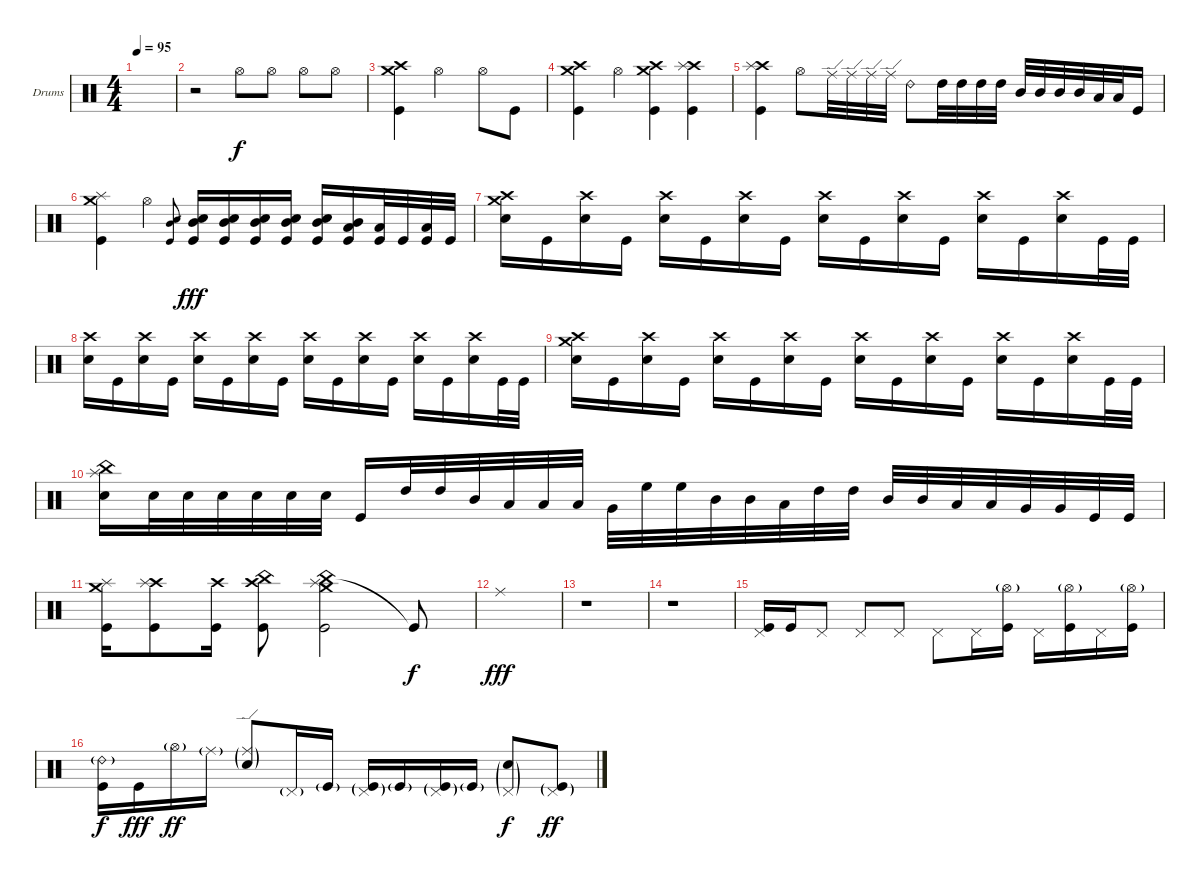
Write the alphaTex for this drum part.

\defaultSystemsLayout 4
\bracketExtendMode groupsimilarinstruments
\firstSystemTrackNameOrientation horizontal
\otherSystemsTrackNameOrientation horizontal
\track ("Drumkit" "Drums") {instrument percussion}
\staff {score}
\articulation defaults
\ts (4 4)
\tempo 95
\clef neutral
\scale
0.472222
\ks c
|
r.2 "Hi-Hat (open)".8 "Hi-Hat (open)".8 "Hi-Hat (open)".8 "Hi-Hat (open)".8 |
("Crash high (hit)" "Crash medium (hit)" "Kick (hit)").4 "Hi-Hat (open)".2 "Hi-Hat (open)".8 "Kick (hit)".8 |
("Crash high (hit)" "Crash medium (hit)" "Kick (hit)").4 "Hi-Hat (open)".4 ("Crash medium (hit)" "Crash high (hit)" "Kick (hit)").4 ("Crash high (hit)" "Splash (hit)" "Kick (hit)").4 |
("Crash high (hit)" "Splash (hit)" "Kick (hit)").4 "Hi-Hat (open)".8 "Ride (edge)".32 "Ride (edge)".32 "Ride (edge)".32 "Ride (edge)".32 "Ride (bell) 2".8 "High Tom (hit)".32 "High Tom (hit)".32 "High Tom (hit)".32 "High Tom (hit)".32 "Mid Tom (hit)".32 "Mid Tom (hit)".32 "Mid Tom (hit)".32 "Mid Tom (hit)".32 "Low Tom (hit)".32 "Low Tom (hit)".32 "Kick (hit)".16 |
("Crash medium (hit)" "Splash (hit)" "Kick (hit)").4 "Hi-Hat (open)".4 ("Mid Tom (hit)" "Kick (hit)" "Snare (hit) 2").8{gr dy f} ("Mid Tom (hit)" "Kick (hit)" "Snare (hit) 2").16{dy fff} ("Mid Tom (hit)" "Kick (hit)" "Snare (hit) 2").16 ("Mid Tom (hit)" "Kick (hit)" "Snare (hit) 2").16 ("Mid Tom (hit)" "Kick (hit)" "Snare (hit) 2").16 ("Mid Tom (hit)" "Kick (hit)" "Snare (hit) 2").16 ("Kick (hit)" "Low Tom (hit)" "Mid Tom (hit)").16 ("Kick (hit)" "Low Tom (hit)").32 "Kick (hit)".32 ("Kick (hit)" "Low Tom (hit)").32 "Kick (hit)".32 |
("Crash high (hit)" "Crash medium (hit)" "Snare (hit) 2").16 "Kick (hit)".16 ("Crash high (hit)" "Snare (hit) 2").16 "Kick (hit)".16 ("Crash high (hit)" "Snare (hit) 2").16 "Kick (hit)".16 ("Crash high (hit)" "Snare (hit) 2").16 "Kick (hit)".16 ("Crash high (hit)" "Snare (hit) 2").16 "Kick (hit)".16 ("Crash high (hit)" "Snare (hit) 2").16 "Kick (hit)".16 ("Crash high (hit)" "Snare (hit) 2").16 "Kick (hit)".16 ("Crash high (hit)" "Snare (hit) 2").16 "Kick (hit)".32 "Kick (hit)".32 |
("Crash high (hit)" "Snare (hit) 2").16 "Kick (hit)".16 ("Crash high (hit)" "Snare (hit) 2").16 "Kick (hit)".16 ("Crash high (hit)" "Snare (hit) 2").16 "Kick (hit)".16 ("Crash high (hit)" "Snare (hit) 2").16 "Kick (hit)".16 ("Crash high (hit)" "Snare (hit) 2").16 "Kick (hit)".16 ("Crash high (hit)" "Snare (hit) 2").16 "Kick (hit)".16 ("Crash high (hit)" "Snare (hit) 2").16 "Kick (hit)".16 ("Crash high (hit)" "Snare (hit) 2").16 "Kick (hit)".32 "Kick (hit)".32 |
("Crash high (hit)" "Crash medium (hit)" "Snare (hit) 2").16 "Kick (hit)".16 ("Crash high (hit)" "Snare (hit) 2").16 "Kick (hit)".16 ("Crash high (hit)" "Snare (hit) 2").16 "Kick (hit)".16 ("Crash high (hit)" "Snare (hit) 2").16 "Kick (hit)".16 ("Crash high (hit)" "Snare (hit) 2").16 "Kick (hit)".16 ("Crash high (hit)" "Snare (hit) 2").16 "Kick (hit)".16 ("Crash high (hit)" "Snare (hit) 2").16 "Kick (hit)".16 ("Crash high (hit)" "Snare (hit) 2").16 "Kick (hit)".32 "Kick (hit)".32 |
("China (hit)" "Splash (hit)" "Snare (hit) 2").16 "Snare (hit) 2".32 "Snare (hit) 2".32 "Snare (hit) 2".32 "Snare (hit) 2".32 "Snare (hit) 2".32 "Snare (hit) 2".32 "Kick (hit)".16 "High Tom (hit)".32 "High Tom (hit)".32 "Mid Tom (hit)".32 "Low Tom (hit)".32 "Low Tom (hit)".32 "Low Tom (hit)".32 "Very Low Tom (hit)".32 "High Floor Tom (hit)".32 "High Floor Tom (hit)".32 "Mid Tom (hit)".32 "Mid Tom (hit)".32 "Low Tom (hit)".32 "High Tom (hit)".32 "High Tom (hit)".32 "Mid Tom (hit)".32 "Mid Tom (hit)".32 "Low Tom (hit)".32 "Low Tom (hit)".32 "Very Low Tom (hit)".32 "Very Low Tom (hit)".32 "Kick (hit)".32 "Kick (hit)".32 |
("Crash medium (hit)" "Splash (hit)" "Kick (hit)").16 ("Crash high (hit)" "Splash (hit)" "Kick (hit)").8 ("Crash high (hit)" "Kick (hit)").16 ("Crash high (hit)" "China (hit)" "Kick (hit)").8 ("Splash (hit)" "China (hit)" "Crash medium (hit)" "Kick (hit)").2 "Kick (hit)"{t}.8{dy f} |
\scale
0.263889 "Ride (middle)".1{dy fff} |
\scale
0.263889 r.1 |
\scale
0.333333 r.1 |
\scale
0.333333 ("Pedal Hi-Hat (hit)" "Kick (hit)").16 "Kick (hit)".16 "Pedal Hi-Hat (hit)".8 "Pedal Hi-Hat (hit)".8 "Pedal Hi-Hat (hit)".8 "Pedal Hi-Hat (hit)".8 "Pedal Hi-Hat (hit)".16 ("Hi-Hat (open)"{g} "Kick (hit)").16 "Pedal Hi-Hat (hit)".16 ("Hi-Hat (open)"{g} "Kick (hit)").16 "Pedal Hi-Hat (hit)".16 ("Hi-Hat (open)"{g} "Kick (hit)").16 |
\scale
0.333333 ("Ride (bell) 2"{g} "Kick (hit)").16{dy f} "Kick (hit)".16{dy fff} "Hi-Hat (open)"{g}.16{dy ff} "Ride (middle)"{g}.16 ("Ride (edge)"{g} "Snare (hit) 2"{g}).8 "Pedal Hi-Hat (hit)"{g}.16 "Kick (hit)"{g}.16 ("Pedal Hi-Hat (hit)"{g} "Kick (hit)"{g}).16 "Kick (hit)"{g}.16 ("Pedal Hi-Hat (hit)"{g} "Kick (hit)"{g}).16 "Kick (hit)"{g}.16 ("Pedal Hi-Hat (hit)"{g} "Snare (hit) 2"{g}).8{dy f} ("Pedal Hi-Hat (hit)"{g} "Kick (hit)"{g}).8{dy ff}
